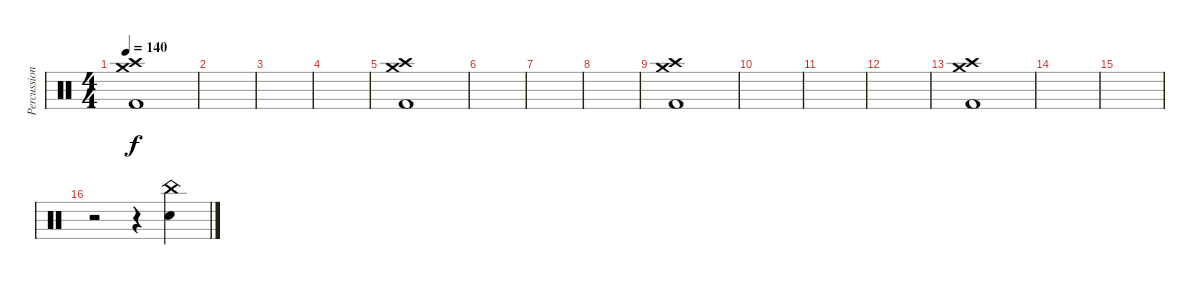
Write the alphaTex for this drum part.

\track ("Percussion" "Percussion") {instrument percussion}
\staff {score}
\articulation defaults
\ts (4 4)
\tempo 140
\clef neutral
\ks c
("Kick (hit) 2" "Crash medium (hit)" "Crash high (hit)").1{dy f} |
|
|
|
("Kick (hit) 2" "Crash medium (hit)" "Crash high (hit)").1 |
|
|
|
("Kick (hit) 2" "Crash medium (hit)" "Crash high (hit)").1 |
|
|
|
("Kick (hit) 2" "Crash medium (hit)" "Crash high (hit)").1 |
|
|
r.2 r.4 ("Electric Snare (hit)" "China (hit)").4
